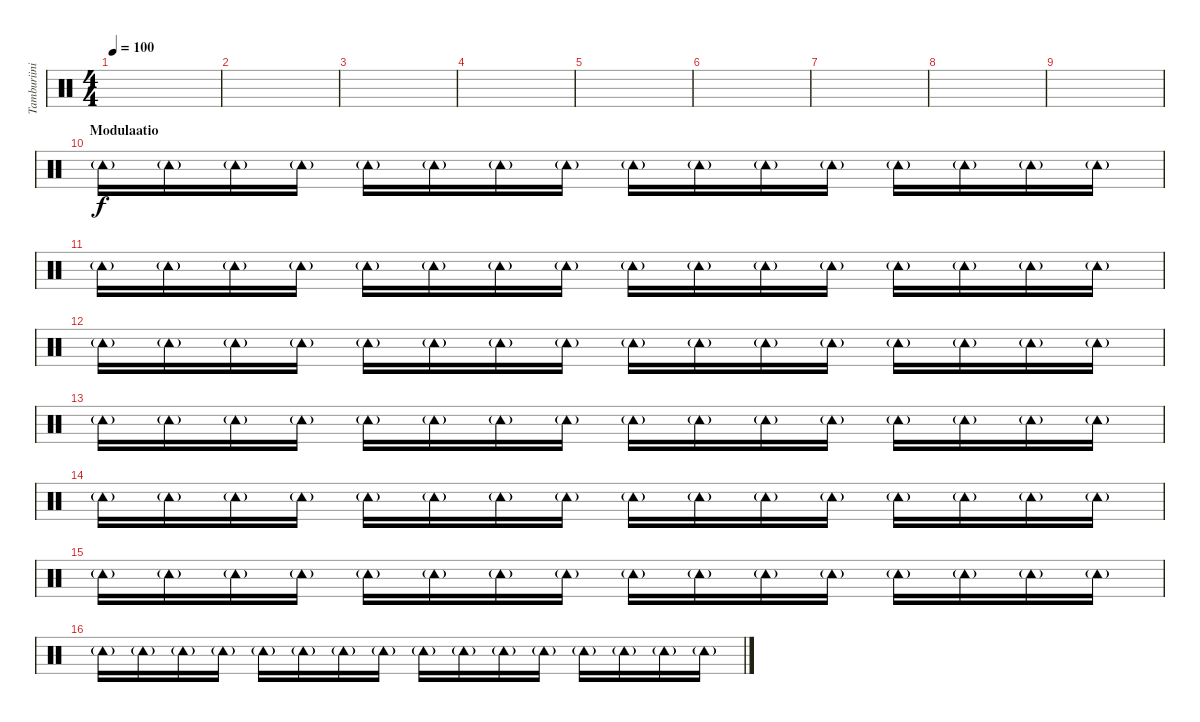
\track ("Tamburiini" "Tamburiini") {instrument percussion}
\staff {score}
\articulation defaults
\ts (4 4)
\tempo 100
\clef neutral
\ks c
|
|
|
|
|
|
|
|
|
\section ("" "Modulaatio")
"Tambourine (hit)"{g}.16 "Tambourine (hit)"{g}.16 "Tambourine (hit)"{g}.16 "Tambourine (hit)"{g}.16 "Tambourine (hit)"{g}.16 "Tambourine (hit)"{g}.16 "Tambourine (hit)"{g}.16 "Tambourine (hit)"{g}.16 "Tambourine (hit)"{g}.16 "Tambourine (hit)"{g}.16 "Tambourine (hit)"{g}.16 "Tambourine (hit)"{g}.16 "Tambourine (hit)"{g}.16 "Tambourine (hit)"{g}.16 "Tambourine (hit)"{g}.16 "Tambourine (hit)"{g}.16 |
"Tambourine (hit)"{g}.16 "Tambourine (hit)"{g}.16 "Tambourine (hit)"{g}.16 "Tambourine (hit)"{g}.16 "Tambourine (hit)"{g}.16 "Tambourine (hit)"{g}.16 "Tambourine (hit)"{g}.16 "Tambourine (hit)"{g}.16 "Tambourine (hit)"{g}.16 "Tambourine (hit)"{g}.16 "Tambourine (hit)"{g}.16 "Tambourine (hit)"{g}.16 "Tambourine (hit)"{g}.16 "Tambourine (hit)"{g}.16 "Tambourine (hit)"{g}.16 "Tambourine (hit)"{g}.16 |
"Tambourine (hit)"{g}.16 "Tambourine (hit)"{g}.16 "Tambourine (hit)"{g}.16 "Tambourine (hit)"{g}.16 "Tambourine (hit)"{g}.16 "Tambourine (hit)"{g}.16 "Tambourine (hit)"{g}.16 "Tambourine (hit)"{g}.16 "Tambourine (hit)"{g}.16 "Tambourine (hit)"{g}.16 "Tambourine (hit)"{g}.16 "Tambourine (hit)"{g}.16 "Tambourine (hit)"{g}.16 "Tambourine (hit)"{g}.16 "Tambourine (hit)"{g}.16 "Tambourine (hit)"{g}.16 |
"Tambourine (hit)"{g}.16 "Tambourine (hit)"{g}.16 "Tambourine (hit)"{g}.16 "Tambourine (hit)"{g}.16 "Tambourine (hit)"{g}.16 "Tambourine (hit)"{g}.16 "Tambourine (hit)"{g}.16 "Tambourine (hit)"{g}.16 "Tambourine (hit)"{g}.16 "Tambourine (hit)"{g}.16 "Tambourine (hit)"{g}.16 "Tambourine (hit)"{g}.16 "Tambourine (hit)"{g}.16 "Tambourine (hit)"{g}.16 "Tambourine (hit)"{g}.16 "Tambourine (hit)"{g}.16 |
"Tambourine (hit)"{g}.16 "Tambourine (hit)"{g}.16 "Tambourine (hit)"{g}.16 "Tambourine (hit)"{g}.16 "Tambourine (hit)"{g}.16 "Tambourine (hit)"{g}.16 "Tambourine (hit)"{g}.16 "Tambourine (hit)"{g}.16 "Tambourine (hit)"{g}.16 "Tambourine (hit)"{g}.16 "Tambourine (hit)"{g}.16 "Tambourine (hit)"{g}.16 "Tambourine (hit)"{g}.16 "Tambourine (hit)"{g}.16 "Tambourine (hit)"{g}.16 "Tambourine (hit)"{g}.16 |
"Tambourine (hit)"{g}.16 "Tambourine (hit)"{g}.16 "Tambourine (hit)"{g}.16 "Tambourine (hit)"{g}.16 "Tambourine (hit)"{g}.16 "Tambourine (hit)"{g}.16 "Tambourine (hit)"{g}.16 "Tambourine (hit)"{g}.16 "Tambourine (hit)"{g}.16 "Tambourine (hit)"{g}.16 "Tambourine (hit)"{g}.16 "Tambourine (hit)"{g}.16 "Tambourine (hit)"{g}.16 "Tambourine (hit)"{g}.16 "Tambourine (hit)"{g}.16 "Tambourine (hit)"{g}.16 |
"Tambourine (hit)"{g}.16 "Tambourine (hit)"{g}.16 "Tambourine (hit)"{g}.16 "Tambourine (hit)"{g}.16 "Tambourine (hit)"{g}.16 "Tambourine (hit)"{g}.16 "Tambourine (hit)"{g}.16 "Tambourine (hit)"{g}.16 "Tambourine (hit)"{g}.16 "Tambourine (hit)"{g}.16 "Tambourine (hit)"{g}.16 "Tambourine (hit)"{g}.16 "Tambourine (hit)"{g}.16 "Tambourine (hit)"{g}.16 "Tambourine (hit)"{g}.16 "Tambourine (hit)"{g}.16
